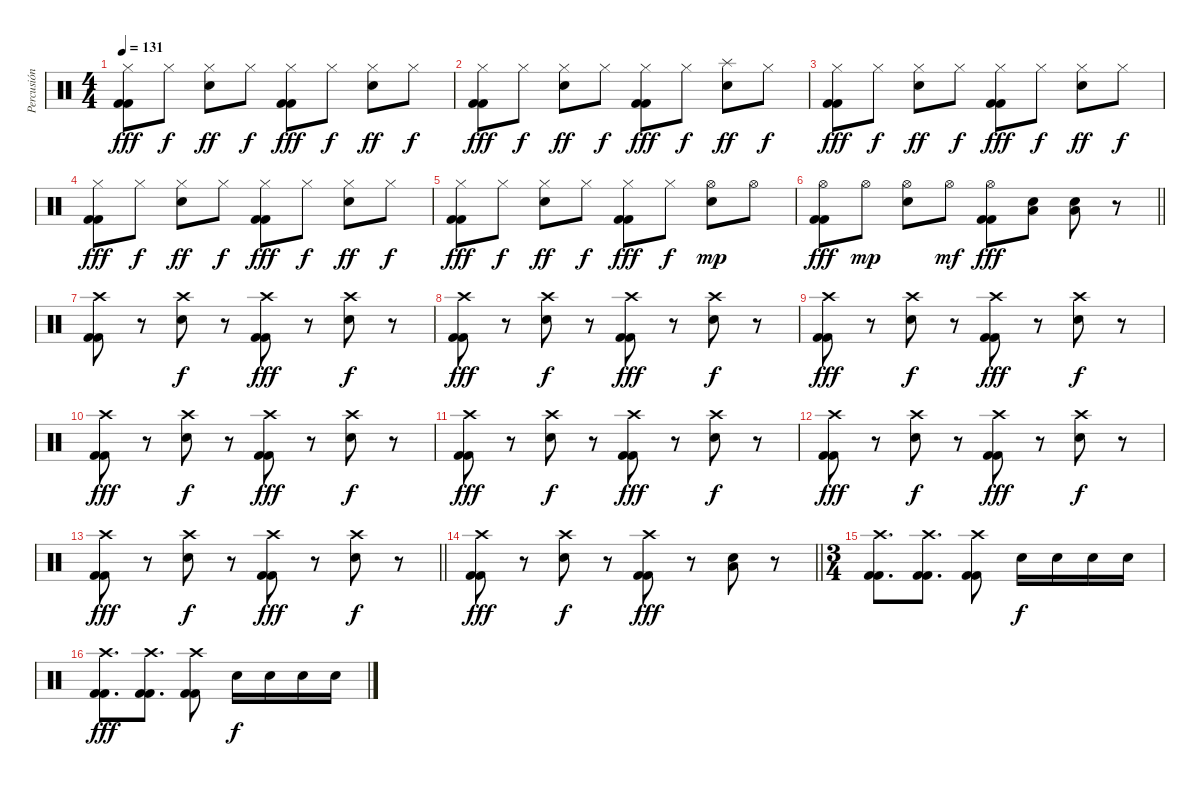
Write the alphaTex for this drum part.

\track ("Percusión" "Percusión") {instrument percussion}
\staff {score}
\articulation defaults
\ts (4 4)
\tempo 131
\clef neutral
\ks c
("Hi-Hat (closed)" "Kick (hit) 2" "Kick (hit) 2").8{dy fff} "Hi-Hat (closed)".8{dy f} ("Hi-Hat (closed)" "Electric Snare (hit)").8{dy ff} "Hi-Hat (closed)".8{dy f} ("Hi-Hat (closed)" "Kick (hit) 2" "Kick (hit) 2").8{dy fff} "Hi-Hat (closed)".8{dy f} ("Hi-Hat (closed)" "Electric Snare (hit)").8{dy ff} "Hi-Hat (closed)".8{dy f} |
("Hi-Hat (closed)" "Kick (hit) 2" "Kick (hit) 2").8{dy fff} "Hi-Hat (closed)".8{dy f} ("Hi-Hat (closed)" "Electric Snare (hit)").8{dy ff} "Hi-Hat (closed)".8{dy f} ("Hi-Hat (closed)" "Kick (hit) 2" "Kick (hit) 2").8{dy fff} "Hi-Hat (closed)".8{dy f} ("Splash (hit)" "Electric Snare (hit)").8{dy ff} "Hi-Hat (closed)".8{dy f} |
("Hi-Hat (closed)" "Kick (hit) 2" "Kick (hit) 2").8{dy fff} "Hi-Hat (closed)".8{dy f} ("Hi-Hat (closed)" "Electric Snare (hit)").8{dy ff} "Hi-Hat (closed)".8{dy f} ("Hi-Hat (closed)" "Kick (hit) 2" "Kick (hit) 2").8{dy fff} "Hi-Hat (closed)".8{dy f} ("Hi-Hat (closed)" "Electric Snare (hit)").8{dy ff} "Hi-Hat (closed)".8{dy f} |
("Hi-Hat (closed)" "Kick (hit) 2" "Kick (hit) 2").8{dy fff} "Hi-Hat (closed)".8{dy f} ("Hi-Hat (closed)" "Electric Snare (hit)").8{dy ff} "Hi-Hat (closed)".8{dy f} ("Hi-Hat (closed)" "Kick (hit) 2" "Kick (hit) 2").8{dy fff} "Hi-Hat (closed)".8{dy f} ("Hi-Hat (closed)" "Electric Snare (hit)").8{dy ff} "Hi-Hat (closed)".8{dy f} |
("Hi-Hat (closed)" "Kick (hit) 2" "Kick (hit) 2").8{dy fff} "Hi-Hat (closed)".8{dy f} ("Hi-Hat (closed)" "Electric Snare (hit)").8{dy ff} "Hi-Hat (closed)".8{dy f} ("Hi-Hat (closed)" "Kick (hit) 2" "Kick (hit) 2").8{dy fff} "Hi-Hat (closed)".8{dy f} ("Hi-Hat (open)" "Electric Snare (hit)").8{dy mp} "Hi-Hat (open)".8 |
\barLineRight lightlight
("Hi-Hat (open)" "Kick (hit) 2" "Kick (hit) 2").8{dy fff} "Hi-Hat (open)".8{dy mp} ("Hi-Hat (open)" "Electric Snare (hit)").8 "Hi-Hat (open)".8{dy mf} ("Hi-Hat (open)" "Kick (hit) 2" "Kick (hit) 2").8{dy fff} ("Low Floor Tom (hit)" "Electric Snare (hit)").8 ("Low Floor Tom (hit)" "Electric Snare (hit)").8 r.8 |
("Crash high (hit)" "Kick (hit) 2" "Kick (hit) 2").8 r.8 ("Crash high (hit)" "Electric Snare (hit)").8{dy f} r.8 ("Crash high (hit)" "Kick (hit) 2" "Kick (hit) 2").8{dy fff} r.8 ("Crash high (hit)" "Electric Snare (hit)").8{dy f} r.8 |
("Crash high (hit)" "Kick (hit) 2" "Kick (hit) 2").8{dy fff} r.8 ("Crash high (hit)" "Electric Snare (hit)").8{dy f} r.8 ("Crash high (hit)" "Kick (hit) 2" "Kick (hit) 2").8{dy fff} r.8 ("Crash high (hit)" "Electric Snare (hit)").8{dy f} r.8 |
("Crash high (hit)" "Kick (hit) 2" "Kick (hit) 2").8{dy fff} r.8 ("Crash high (hit)" "Electric Snare (hit)").8{dy f} r.8 ("Crash high (hit)" "Kick (hit) 2" "Kick (hit) 2").8{dy fff} r.8 ("Crash high (hit)" "Electric Snare (hit)").8{dy f} r.8 |
("Crash high (hit)" "Kick (hit) 2" "Kick (hit) 2").8{dy fff} r.8 ("Crash high (hit)" "Electric Snare (hit)").8{dy f} r.8 ("Crash high (hit)" "Kick (hit) 2" "Kick (hit) 2").8{dy fff} r.8 ("Crash high (hit)" "Electric Snare (hit)").8{dy f} r.8 |
("Crash high (hit)" "Kick (hit) 2" "Kick (hit) 2").8{dy fff} r.8 ("Crash high (hit)" "Electric Snare (hit)").8{dy f} r.8 ("Crash high (hit)" "Kick (hit) 2" "Kick (hit) 2").8{dy fff} r.8 ("Crash high (hit)" "Electric Snare (hit)").8{dy f} r.8 |
("Crash high (hit)" "Kick (hit) 2" "Kick (hit) 2").8{dy fff} r.8 ("Crash high (hit)" "Electric Snare (hit)").8{dy f} r.8 ("Crash high (hit)" "Kick (hit) 2" "Kick (hit) 2").8{dy fff} r.8 ("Crash high (hit)" "Electric Snare (hit)").8{dy f} r.8 |
\barLineRight lightlight
("Crash high (hit)" "Kick (hit) 2" "Kick (hit) 2").8{dy fff} r.8 ("Crash high (hit)" "Electric Snare (hit)").8{dy f} r.8 ("Crash high (hit)" "Kick (hit) 2" "Kick (hit) 2").8{dy fff} r.8 ("Crash high (hit)" "Electric Snare (hit)").8{dy f} r.8 |
\barLineRight lightlight
("Crash high (hit)" "Kick (hit) 2" "Kick (hit) 2").8{dy fff} r.8 ("Crash high (hit)" "Electric Snare (hit)").8{dy f} r.8 ("Crash high (hit)" "Kick (hit) 2" "Kick (hit) 2").8{dy fff} r.8 ("Low Floor Tom (hit)" "Electric Snare (hit)").8 r.8 |
\ts (3 4)
\section ("" "")
("Crash high (hit)" "Kick (hit) 2" "Kick (hit) 2").8{d} ("Crash high (hit)" "Kick (hit) 2" "Kick (hit) 2").8{d} ("Crash high (hit)" "Kick (hit) 2" "Kick (hit) 2").8 "Electric Snare (hit)".16{dy f} "Electric Snare (hit)".16 "Electric Snare (hit)".16 "Electric Snare (hit)".16 |
("Crash high (hit)" "Kick (hit) 2" "Kick (hit) 2").8{d dy fff} ("Crash high (hit)" "Kick (hit) 2" "Kick (hit) 2").8{d} ("Crash high (hit)" "Kick (hit) 2" "Kick (hit) 2").8 "Electric Snare (hit)".16{dy f} "Electric Snare (hit)".16 "Electric Snare (hit)".16 "Electric Snare (hit)".16
